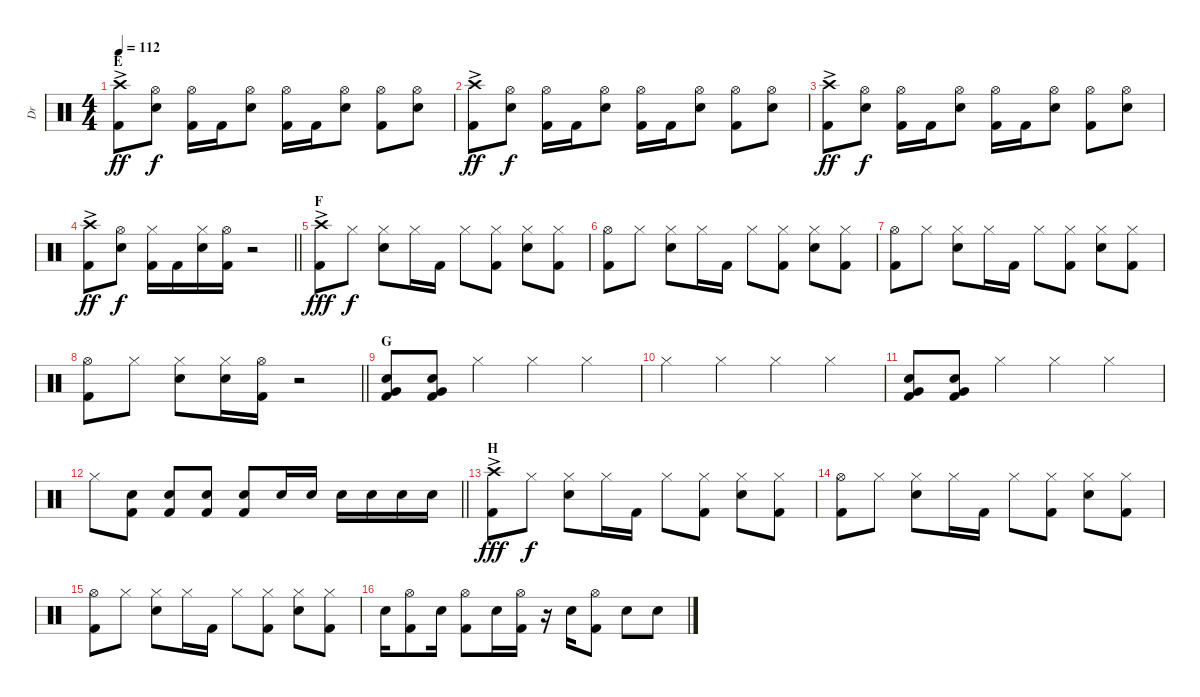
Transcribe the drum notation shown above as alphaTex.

\track ("Dr" "Dr") {instrument percussion}
\staff {score}
\articulation defaults
\ts (4 4)
\section ("" "E")
\tempo 112
\clef neutral
\ks c
("Crash high (hit)"{ac} "Kick (hit) 2"{ac}).8{dy ff} ("Hi-Hat (open)" "Electric Snare (hit)").8{dy f} ("Hi-Hat (open)" "Kick (hit) 2").16 "Kick (hit) 2".16 ("Hi-Hat (open)" "Electric Snare (hit)").8 ("Hi-Hat (open)" "Kick (hit) 2").16 "Kick (hit) 2".16 ("Hi-Hat (open)" "Electric Snare (hit)").8 ("Hi-Hat (open)" "Kick (hit) 2").8 ("Hi-Hat (open)" "Electric Snare (hit)").8 |
("Crash high (hit)"{ac} "Kick (hit) 2"{ac}).8{dy ff} ("Hi-Hat (open)" "Electric Snare (hit)").8{dy f} ("Hi-Hat (open)" "Kick (hit) 2").16 "Kick (hit) 2".16 ("Hi-Hat (open)" "Electric Snare (hit)").8 ("Hi-Hat (open)" "Kick (hit) 2").16 "Kick (hit) 2".16 ("Hi-Hat (open)" "Electric Snare (hit)").8 ("Hi-Hat (open)" "Kick (hit) 2").8 ("Hi-Hat (open)" "Electric Snare (hit)").8 |
("Crash high (hit)"{ac} "Kick (hit) 2"{ac}).8{dy ff} ("Hi-Hat (open)" "Electric Snare (hit)").8{dy f} ("Hi-Hat (open)" "Kick (hit) 2").16 "Kick (hit) 2".16 ("Hi-Hat (open)" "Electric Snare (hit)").8 ("Hi-Hat (open)" "Kick (hit) 2").16 "Kick (hit) 2".16 ("Hi-Hat (open)" "Electric Snare (hit)").8 ("Hi-Hat (open)" "Kick (hit) 2").8 ("Hi-Hat (open)" "Electric Snare (hit)").8 |
\barLineRight lightlight
("Crash high (hit)"{ac} "Kick (hit) 2"{ac}).8{dy ff} ("Hi-Hat (open)" "Electric Snare (hit)").8{dy f} ("Hi-Hat (closed)" "Kick (hit) 2").16 "Kick (hit) 2".16 ("Hi-Hat (closed)" "Electric Snare (hit)").16 ("Hi-Hat (open)" "Kick (hit) 2").16 r.2 |
\section ("" "F")
("Crash high (hit)"{ac} "Kick (hit) 2"{ac}).8{dy fff} "Hi-Hat (closed)".8{dy f} ("Hi-Hat (closed)" "Electric Snare (hit)").8 "Hi-Hat (closed)".16 "Kick (hit) 2".16 "Hi-Hat (closed)".8 ("Hi-Hat (closed)" "Kick (hit) 2").8 ("Hi-Hat (closed)" "Electric Snare (hit)").8 ("Hi-Hat (closed)" "Kick (hit) 2").8 |
("Hi-Hat (open)" "Kick (hit) 2").8 "Hi-Hat (closed)".8 ("Hi-Hat (closed)" "Electric Snare (hit)").8 "Hi-Hat (closed)".16 "Kick (hit) 2".16 "Hi-Hat (closed)".8 ("Hi-Hat (closed)" "Kick (hit) 2").8 ("Hi-Hat (closed)" "Electric Snare (hit)").8 ("Hi-Hat (closed)" "Kick (hit) 2").8 |
("Hi-Hat (open)" "Kick (hit) 2").8 "Hi-Hat (closed)".8 ("Hi-Hat (closed)" "Electric Snare (hit)").8 "Hi-Hat (closed)".16 "Kick (hit) 2".16 "Hi-Hat (closed)".8 ("Hi-Hat (closed)" "Kick (hit) 2").8 ("Hi-Hat (closed)" "Electric Snare (hit)").8 ("Hi-Hat (closed)" "Kick (hit) 2").8 |
\barLineRight lightlight
("Hi-Hat (open)" "Kick (hit) 2").8 "Hi-Hat (closed)".8 ("Hi-Hat (closed)" "Electric Snare (hit)").8 ("Hi-Hat (closed)" "Electric Snare (hit)").16 ("Hi-Hat (open)" "Kick (hit) 2").16 r.2 |
\section ("" "G")
("Electric Snare (hit)" "Very Low Tom (hit)" "Kick (hit) 2").8 ("Electric Snare (hit)" "Very Low Tom (hit)" "Kick (hit) 2").8 "Hi-Hat (closed)".4 "Hi-Hat (closed)".4 "Hi-Hat (closed)".4 |
"Hi-Hat (closed)".4 "Hi-Hat (closed)".4 "Hi-Hat (closed)".4 "Hi-Hat (closed)".4 |
("Electric Snare (hit)" "Very Low Tom (hit)" "Kick (hit) 2").8 ("Electric Snare (hit)" "Very Low Tom (hit)" "Kick (hit) 2").8 "Hi-Hat (closed)".4 "Hi-Hat (closed)".4 "Hi-Hat (closed)".4 |
\barLineRight lightlight "Hi-Hat (closed)".8
("Electric Snare (hit)" "Kick (hit) 2").8 ("Electric Snare (hit)" "Kick (hit) 2").8 ("Electric Snare (hit)" "Kick (hit) 2").8 ("Electric Snare (hit)" "Kick (hit) 2").8 "Electric Snare (hit)".16 "Electric Snare (hit)".16 "Electric Snare (hit)".16 "Electric Snare (hit)".16 "Electric Snare (hit)".16 "Electric Snare (hit)".16 |
\section ("" "H")
("Crash high (hit)"{ac} "Kick (hit) 2"{ac}).8{dy fff} "Hi-Hat (closed)".8{dy f} ("Hi-Hat (closed)" "Electric Snare (hit)").8 "Hi-Hat (closed)".16 "Kick (hit) 2".16 "Hi-Hat (closed)".8 ("Hi-Hat (closed)" "Kick (hit) 2").8 ("Hi-Hat (closed)" "Electric Snare (hit)").8 ("Hi-Hat (closed)" "Kick (hit) 2").8 |
("Hi-Hat (open)" "Kick (hit) 2").8 "Hi-Hat (closed)".8 ("Hi-Hat (closed)" "Electric Snare (hit)").8 "Hi-Hat (closed)".16 "Kick (hit) 2".16 "Hi-Hat (closed)".8 ("Hi-Hat (closed)" "Kick (hit) 2").8 ("Hi-Hat (closed)" "Electric Snare (hit)").8 ("Hi-Hat (closed)" "Kick (hit) 2").8 |
("Hi-Hat (open)" "Kick (hit) 2").8 "Hi-Hat (closed)".8 ("Hi-Hat (closed)" "Electric Snare (hit)").8 "Hi-Hat (closed)".16 "Kick (hit) 2".16 "Hi-Hat (closed)".8 ("Hi-Hat (closed)" "Kick (hit) 2").8 ("Hi-Hat (closed)" "Electric Snare (hit)").8 ("Hi-Hat (closed)" "Kick (hit) 2").8 |
"Electric Snare (hit)".16 ("Hi-Hat (open)" "Kick (hit) 2").8 "Electric Snare (hit)".16 ("Hi-Hat (open)" "Kick (hit) 2").8 "Electric Snare (hit)".16 ("Hi-Hat (open)" "Kick (hit) 2").16 r.16 "Electric Snare (hit)".16 ("Hi-Hat (open)" "Kick (hit) 2").8 "Electric Snare (hit)".8 "Electric Snare (hit)".8
